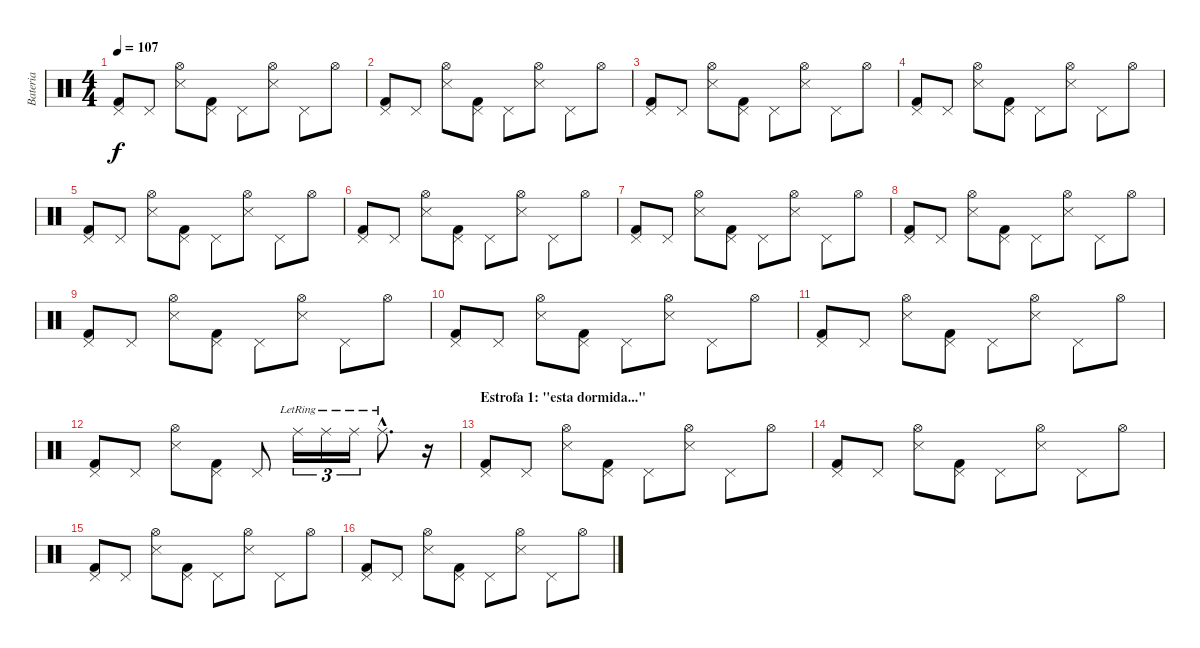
\track ("Bateria" "Bateria") {instrument percussion}
\staff {score}
\articulation defaults
\ts (4 4)
\tempo 107
\clef neutral
\ks c
("Kick (hit) 2" "Pedal Hi-Hat (hit)").8{dy f} "Pedal Hi-Hat (hit)".8 ("Hi-Hat (open)" "Snare (side stick) 3").8 ("Kick (hit) 2" "Pedal Hi-Hat (hit)").8 "Pedal Hi-Hat (hit)".8 ("Snare (side stick) 3" "Hi-Hat (open)").8 "Pedal Hi-Hat (hit)".8 "Hi-Hat (open)".8 |
("Kick (hit) 2" "Pedal Hi-Hat (hit)").8 "Pedal Hi-Hat (hit)".8 ("Hi-Hat (open)" "Snare (side stick) 3").8 ("Kick (hit) 2" "Pedal Hi-Hat (hit)").8 "Pedal Hi-Hat (hit)".8 ("Snare (side stick) 3" "Hi-Hat (open)").8 "Pedal Hi-Hat (hit)".8 "Hi-Hat (open)".8 |
("Kick (hit) 2" "Pedal Hi-Hat (hit)").8 "Pedal Hi-Hat (hit)".8 ("Hi-Hat (open)" "Snare (side stick) 3").8 ("Kick (hit) 2" "Pedal Hi-Hat (hit)").8 "Pedal Hi-Hat (hit)".8 ("Snare (side stick) 3" "Hi-Hat (open)").8 "Pedal Hi-Hat (hit)".8 "Hi-Hat (open)".8 |
("Kick (hit) 2" "Pedal Hi-Hat (hit)").8 "Pedal Hi-Hat (hit)".8 ("Hi-Hat (open)" "Snare (side stick) 3").8 ("Kick (hit) 2" "Pedal Hi-Hat (hit)").8 "Pedal Hi-Hat (hit)".8 ("Snare (side stick) 3" "Hi-Hat (open)").8 "Pedal Hi-Hat (hit)".8 "Hi-Hat (open)".8 |
("Kick (hit) 2" "Pedal Hi-Hat (hit)").8 "Pedal Hi-Hat (hit)".8 ("Hi-Hat (open)" "Snare (side stick) 3").8 ("Kick (hit) 2" "Pedal Hi-Hat (hit)").8 "Pedal Hi-Hat (hit)".8 ("Snare (side stick) 3" "Hi-Hat (open)").8 "Pedal Hi-Hat (hit)".8 "Hi-Hat (open)".8 |
("Kick (hit) 2" "Pedal Hi-Hat (hit)").8 "Pedal Hi-Hat (hit)".8 ("Hi-Hat (open)" "Snare (side stick) 3").8 ("Kick (hit) 2" "Pedal Hi-Hat (hit)").8 "Pedal Hi-Hat (hit)".8 ("Snare (side stick) 3" "Hi-Hat (open)").8 "Pedal Hi-Hat (hit)".8 "Hi-Hat (open)".8 |
("Kick (hit) 2" "Pedal Hi-Hat (hit)").8 "Pedal Hi-Hat (hit)".8 ("Hi-Hat (open)" "Snare (side stick) 3").8 ("Kick (hit) 2" "Pedal Hi-Hat (hit)").8 "Pedal Hi-Hat (hit)".8 ("Snare (side stick) 3" "Hi-Hat (open)").8 "Pedal Hi-Hat (hit)".8 "Hi-Hat (open)".8 |
("Kick (hit) 2" "Pedal Hi-Hat (hit)").8 "Pedal Hi-Hat (hit)".8 ("Hi-Hat (open)" "Snare (side stick) 3").8 ("Kick (hit) 2" "Pedal Hi-Hat (hit)").8 "Pedal Hi-Hat (hit)".8 ("Snare (side stick) 3" "Hi-Hat (open)").8 "Pedal Hi-Hat (hit)".8 "Hi-Hat (open)".8 |
("Kick (hit) 2" "Pedal Hi-Hat (hit)").8 "Pedal Hi-Hat (hit)".8 ("Hi-Hat (open)" "Snare (side stick) 3").8 ("Kick (hit) 2" "Pedal Hi-Hat (hit)").8 "Pedal Hi-Hat (hit)".8 ("Snare (side stick) 3" "Hi-Hat (open)").8 "Pedal Hi-Hat (hit)".8 "Hi-Hat (open)".8 |
("Kick (hit) 2" "Pedal Hi-Hat (hit)").8 "Pedal Hi-Hat (hit)".8 ("Hi-Hat (open)" "Snare (side stick) 3").8 ("Kick (hit) 2" "Pedal Hi-Hat (hit)").8 "Pedal Hi-Hat (hit)".8 ("Snare (side stick) 3" "Hi-Hat (open)").8 "Pedal Hi-Hat (hit)".8 "Hi-Hat (open)".8 |
("Kick (hit) 2" "Pedal Hi-Hat (hit)").8 "Pedal Hi-Hat (hit)".8 ("Hi-Hat (open)" "Snare (side stick) 3").8 ("Kick (hit) 2" "Pedal Hi-Hat (hit)").8 "Pedal Hi-Hat (hit)".8 ("Snare (side stick) 3" "Hi-Hat (open)").8 "Pedal Hi-Hat (hit)".8 "Hi-Hat (open)".8 |
("Kick (hit) 2" "Pedal Hi-Hat (hit)").8 "Pedal Hi-Hat (hit)".8 ("Hi-Hat (open)" "Snare (side stick) 3").8 ("Kick (hit) 2" "Pedal Hi-Hat (hit)").8 "Pedal Hi-Hat (hit)".8 "Ride (middle)"{lr}.16{tu (3 2)} "Ride (middle)"{lr}.16{tu (3 2)} "Ride (middle)"{lr}.16{tu (3 2)} "Ride (middle)"{hac lr}.8{d} r.16 |
\section ("" "Estrofa 1: \"esta dormida...\"")
("Kick (hit) 2" "Pedal Hi-Hat (hit)").8 "Pedal Hi-Hat (hit)".8 ("Hi-Hat (open)" "Snare (side stick) 3").8 ("Kick (hit) 2" "Pedal Hi-Hat (hit)").8 "Pedal Hi-Hat (hit)".8 ("Snare (side stick) 3" "Hi-Hat (open)").8 "Pedal Hi-Hat (hit)".8 "Hi-Hat (open)".8 |
("Kick (hit) 2" "Pedal Hi-Hat (hit)").8 "Pedal Hi-Hat (hit)".8 ("Hi-Hat (open)" "Snare (side stick) 3").8 ("Kick (hit) 2" "Pedal Hi-Hat (hit)").8 "Pedal Hi-Hat (hit)".8 ("Snare (side stick) 3" "Hi-Hat (open)").8 "Pedal Hi-Hat (hit)".8 "Hi-Hat (open)".8 |
("Kick (hit) 2" "Pedal Hi-Hat (hit)").8 "Pedal Hi-Hat (hit)".8 ("Hi-Hat (open)" "Snare (side stick) 3").8 ("Kick (hit) 2" "Pedal Hi-Hat (hit)").8 "Pedal Hi-Hat (hit)".8 ("Snare (side stick) 3" "Hi-Hat (open)").8 "Pedal Hi-Hat (hit)".8 "Hi-Hat (open)".8 |
("Kick (hit) 2" "Pedal Hi-Hat (hit)").8 "Pedal Hi-Hat (hit)".8 ("Hi-Hat (open)" "Snare (side stick) 3").8 ("Kick (hit) 2" "Pedal Hi-Hat (hit)").8 "Pedal Hi-Hat (hit)".8 ("Snare (side stick) 3" "Hi-Hat (open)").8 "Pedal Hi-Hat (hit)".8 "Hi-Hat (open)".8
